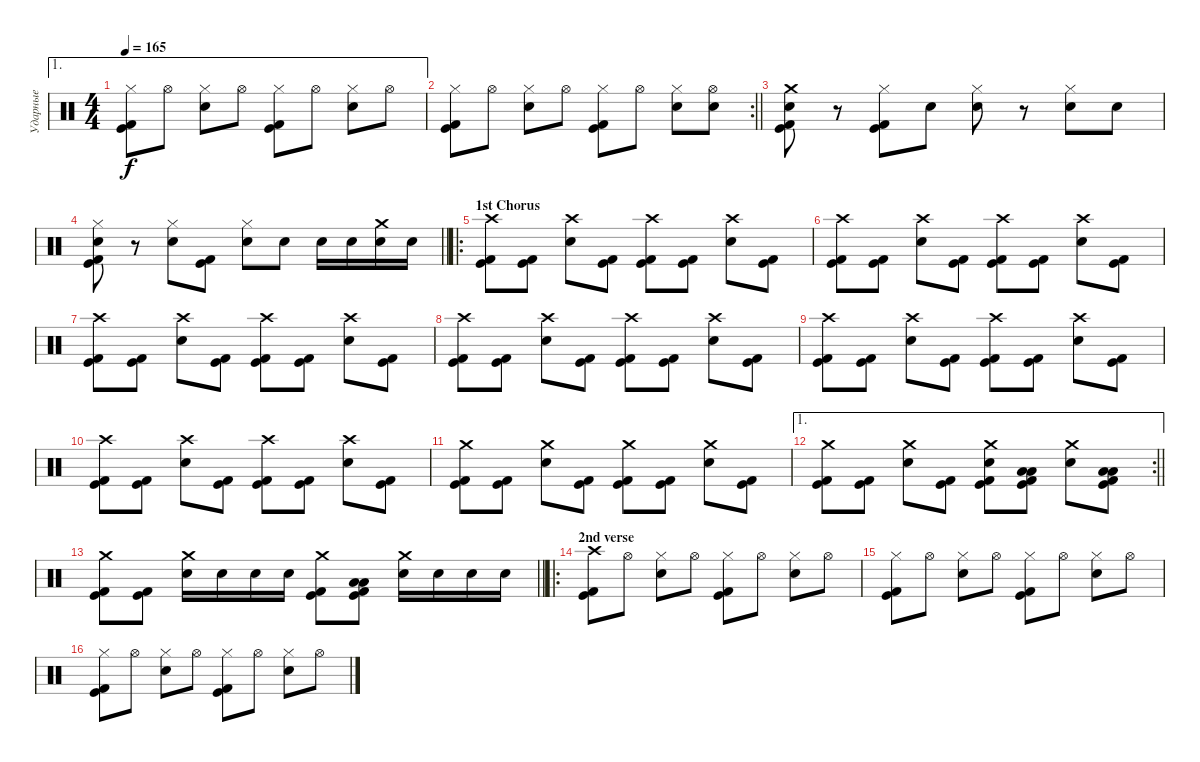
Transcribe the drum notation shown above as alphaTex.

\track ("Ударные" "Ударные") {instrument percussion}
\staff {score}
\articulation defaults
\ae 1
\ts (4 4)
\tempo 165
\clef neutral
\ks c
("Hi-Hat (closed)" "Kick (hit)" "Kick (hit) 2").8{dy f} "Hi-Hat (open)".8 ("Hi-Hat (closed)" "Electric Snare (hit)").8 "Hi-Hat (open)".8 ("Hi-Hat (closed)" "Kick (hit)" "Kick (hit) 2").8 "Hi-Hat (open)".8 ("Hi-Hat (closed)" "Electric Snare (hit)").8 "Hi-Hat (open)".8 |
\rc 2
\barLineRight lightlight
("Hi-Hat (closed)" "Kick (hit)" "Kick (hit) 2").8 "Hi-Hat (open)".8 ("Hi-Hat (closed)" "Electric Snare (hit)").8 "Hi-Hat (open)".8 ("Hi-Hat (closed)" "Kick (hit)" "Kick (hit) 2").8 "Hi-Hat (open)".8 ("Hi-Hat (closed)" "Electric Snare (hit)").8 ("Hi-Hat (open)" "Electric Snare (hit)").8 |
("Crash medium (hit)" "Electric Snare (hit)" "Kick (hit)" "Kick (hit) 2").8 r.8 ("Hi-Hat (closed)" "Kick (hit)" "Kick (hit) 2").8 "Electric Snare (hit)".8 ("Hi-Hat (closed)" "Electric Snare (hit)").8 r.8 ("Hi-Hat (closed)" "Electric Snare (hit)").8 "Electric Snare (hit)".8 |
\barLineRight lightlight
("Hi-Hat (closed)" "Electric Snare (hit)" "Kick (hit)" "Kick (hit) 2").8 r.8 ("Hi-Hat (closed)" "Electric Snare (hit)").8 ("Kick (hit)" "Kick (hit) 2").8 ("Hi-Hat (closed)" "Electric Snare (hit)").8 "Electric Snare (hit)".8 "Electric Snare (hit)".16 "Electric Snare (hit)".16 ("Crash medium (hit)" "Electric Snare (hit)").16 "Electric Snare (hit)".16 |
\ro
\section ("" "1st Chorus")
("Crash high (hit)" "Kick (hit)" "Kick (hit) 2").8 ("Kick (hit)" "Kick (hit) 2").8 ("Crash high (hit)" "Electric Snare (hit)").8 ("Kick (hit)" "Kick (hit) 2").8 ("Crash high (hit)" "Kick (hit)" "Kick (hit) 2").8 ("Kick (hit)" "Kick (hit) 2").8 ("Crash high (hit)" "Electric Snare (hit)").8 ("Kick (hit)" "Kick (hit) 2").8 |
("Crash high (hit)" "Kick (hit)" "Kick (hit) 2").8 ("Kick (hit)" "Kick (hit) 2").8 ("Crash high (hit)" "Electric Snare (hit)").8 ("Kick (hit)" "Kick (hit) 2").8 ("Crash high (hit)" "Kick (hit)" "Kick (hit) 2").8 ("Kick (hit)" "Kick (hit) 2").8 ("Crash high (hit)" "Electric Snare (hit)").8 ("Kick (hit)" "Kick (hit) 2").8 |
("Crash high (hit)" "Kick (hit)" "Kick (hit) 2").8 ("Kick (hit)" "Kick (hit) 2").8 ("Crash high (hit)" "Electric Snare (hit)").8 ("Kick (hit)" "Kick (hit) 2").8 ("Crash high (hit)" "Kick (hit)" "Kick (hit) 2").8 ("Kick (hit)" "Kick (hit) 2").8 ("Crash high (hit)" "Electric Snare (hit)").8 ("Kick (hit)" "Kick (hit) 2").8 |
("Crash high (hit)" "Kick (hit)" "Kick (hit) 2").8 ("Kick (hit)" "Kick (hit) 2").8 ("Crash high (hit)" "Electric Snare (hit)").8 ("Kick (hit)" "Kick (hit) 2").8 ("Crash high (hit)" "Kick (hit)" "Kick (hit) 2").8 ("Kick (hit)" "Kick (hit) 2").8 ("Crash high (hit)" "Electric Snare (hit)").8 ("Kick (hit)" "Kick (hit) 2").8 |
("Crash high (hit)" "Kick (hit)" "Kick (hit) 2").8 ("Kick (hit)" "Kick (hit) 2").8 ("Crash high (hit)" "Electric Snare (hit)").8 ("Kick (hit)" "Kick (hit) 2").8 ("Crash high (hit)" "Kick (hit)" "Kick (hit) 2").8 ("Kick (hit)" "Kick (hit) 2").8 ("Crash high (hit)" "Electric Snare (hit)").8 ("Kick (hit)" "Kick (hit) 2").8 |
("Crash high (hit)" "Kick (hit)" "Kick (hit) 2").8 ("Kick (hit)" "Kick (hit) 2").8 ("Crash high (hit)" "Electric Snare (hit)").8 ("Kick (hit)" "Kick (hit) 2").8 ("Crash high (hit)" "Kick (hit)" "Kick (hit) 2").8 ("Kick (hit)" "Kick (hit) 2").8 ("Crash high (hit)" "Electric Snare (hit)").8 ("Kick (hit)" "Kick (hit) 2").8 |
("Crash medium (hit)" "Kick (hit)" "Kick (hit) 2").8 ("Kick (hit)" "Kick (hit) 2").8 ("Crash medium (hit)" "Electric Snare (hit)").8 ("Kick (hit)" "Kick (hit) 2").8 ("Crash medium (hit)" "Kick (hit)" "Kick (hit) 2").8 ("Kick (hit)" "Kick (hit) 2").8 ("Crash medium (hit)" "Electric Snare (hit)").8 ("Kick (hit)" "Kick (hit) 2").8 |
\ae 1
\rc 2
\barLineRight lightlight
("Crash medium (hit)" "Kick (hit)" "Kick (hit) 2").8 ("Kick (hit)" "Kick (hit) 2").8 ("Crash medium (hit)" "Electric Snare (hit)").8 ("Kick (hit)" "Kick (hit) 2").8 ("Crash medium (hit)" "Electric Snare (hit)" "Kick (hit)" "Kick (hit) 2").8 ("Low Tom (hit)" "Low Floor Tom (hit)" "Kick (hit)" "Kick (hit) 2").8 ("Crash medium (hit)" "Electric Snare (hit)").8 ("Low Tom (hit)" "Low Floor Tom (hit)" "Kick (hit)" "Kick (hit) 2").8 |
\barLineRight lightlight
("Crash medium (hit)" "Kick (hit)" "Kick (hit) 2").8 ("Kick (hit)" "Kick (hit) 2").8 ("Crash medium (hit)" "Electric Snare (hit)").16 "Electric Snare (hit)".16 "Electric Snare (hit)".16 "Electric Snare (hit)".16 ("Crash medium (hit)" "Kick (hit)" "Kick (hit) 2").8 ("Low Tom (hit)" "Low Floor Tom (hit)" "Kick (hit)" "Kick (hit) 2").8 ("Crash medium (hit)" "Electric Snare (hit)").16 "Electric Snare (hit)".16 "Electric Snare (hit)".16 "Electric Snare (hit)".16 |
\ro
\section ("" "2nd verse")
("Crash high (hit)" "Kick (hit)" "Kick (hit) 2").8 "Hi-Hat (open)".8 ("Hi-Hat (closed)" "Electric Snare (hit)").8 "Hi-Hat (open)".8 ("Hi-Hat (closed)" "Kick (hit)" "Kick (hit) 2").8 "Hi-Hat (open)".8 ("Hi-Hat (closed)" "Electric Snare (hit)").8 "Hi-Hat (open)".8 |
("Hi-Hat (closed)" "Kick (hit)" "Kick (hit) 2").8 "Hi-Hat (open)".8 ("Hi-Hat (closed)" "Electric Snare (hit)").8 "Hi-Hat (open)".8 ("Hi-Hat (closed)" "Kick (hit)" "Kick (hit) 2").8 "Hi-Hat (open)".8 ("Hi-Hat (closed)" "Electric Snare (hit)").8 "Hi-Hat (open)".8 |
("Hi-Hat (closed)" "Kick (hit)" "Kick (hit) 2").8 "Hi-Hat (open)".8 ("Hi-Hat (closed)" "Electric Snare (hit)").8 "Hi-Hat (open)".8 ("Hi-Hat (closed)" "Kick (hit)" "Kick (hit) 2").8 "Hi-Hat (open)".8 ("Hi-Hat (closed)" "Electric Snare (hit)").8 "Hi-Hat (open)".8
